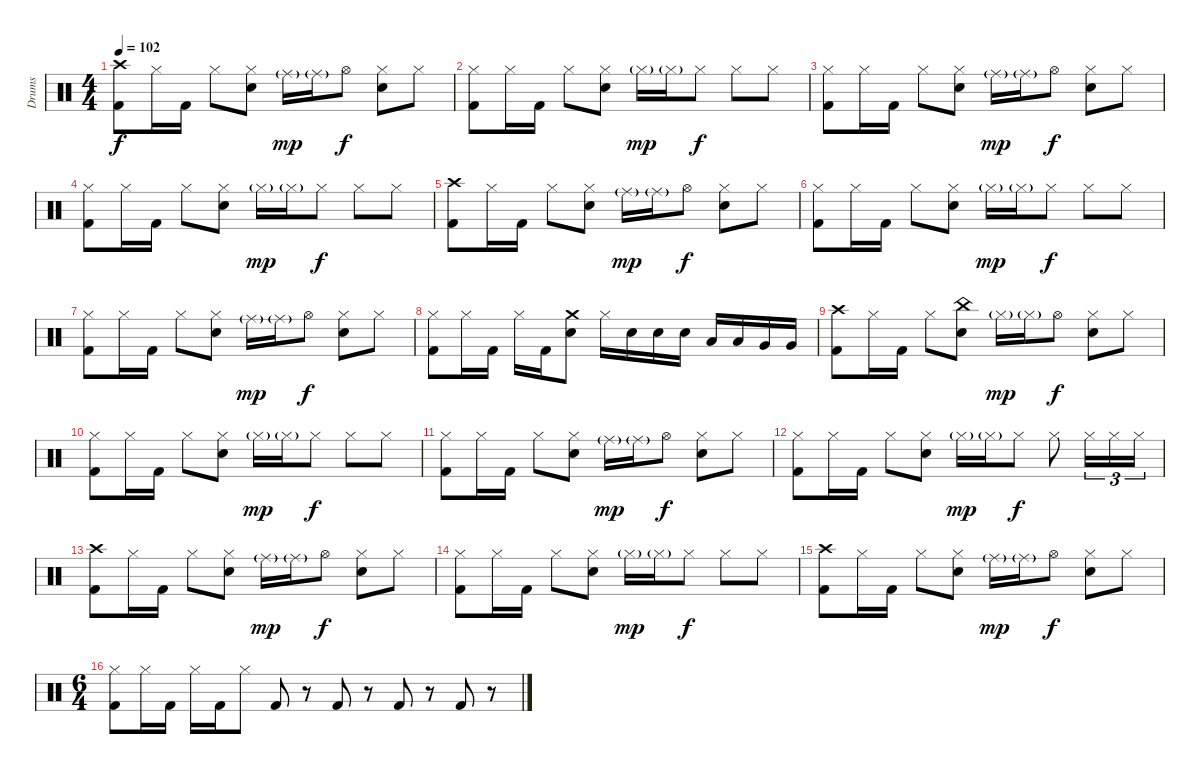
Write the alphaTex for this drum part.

\track ("Drums" "Drums") {instrument percussion}
\staff {score}
\articulation defaults
\ts (4 4)
\section ("" "")
\tempo 102
\clef neutral
\ks c
("Crash high (hit)" "Kick (hit) 2").8{dy f} "Hi-Hat (closed)".16 "Kick (hit) 2".16 "Hi-Hat (closed)".8 ("Hi-Hat (closed)" "Electric Snare (hit)").8 "Ride (middle)"{g}.16{dy mp} "Ride (middle)"{g}.16 "Hi-Hat (open)".8{dy f} ("Hi-Hat (closed)" "Electric Snare (hit)").8 "Hi-Hat (closed)".8 |
("Hi-Hat (closed)" "Kick (hit) 2").8 "Hi-Hat (closed)".16 "Kick (hit) 2".16 "Hi-Hat (closed)".8 ("Hi-Hat (closed)" "Electric Snare (hit)").8 "Hi-Hat (closed)"{g}.16{dy mp} "Hi-Hat (closed)"{g}.16 "Hi-Hat (closed)".8{dy f} "Hi-Hat (closed)".8 "Hi-Hat (closed)".8 |
("Hi-Hat (closed)" "Kick (hit) 2").8 "Hi-Hat (closed)".16 "Kick (hit) 2".16 "Hi-Hat (closed)".8 ("Hi-Hat (closed)" "Electric Snare (hit)").8 "Ride (middle)"{g}.16{dy mp} "Ride (middle)"{g}.16 "Hi-Hat (open)".8{dy f} ("Hi-Hat (closed)" "Electric Snare (hit)").8 "Hi-Hat (closed)".8 |
("Hi-Hat (closed)" "Kick (hit) 2").8 "Hi-Hat (closed)".16 "Kick (hit) 2".16 "Hi-Hat (closed)".8 ("Hi-Hat (closed)" "Electric Snare (hit)").8 "Hi-Hat (closed)"{g}.16{dy mp} "Hi-Hat (closed)"{g}.16 "Hi-Hat (closed)".8{dy f} "Hi-Hat (closed)".8 "Hi-Hat (closed)".8 |
("Crash high (hit)" "Kick (hit) 2").8 "Hi-Hat (closed)".16 "Kick (hit) 2".16 "Hi-Hat (closed)".8 ("Hi-Hat (closed)" "Electric Snare (hit)").8 "Ride (middle)"{g}.16{dy mp} "Ride (middle)"{g}.16 "Hi-Hat (open)".8{dy f} ("Hi-Hat (closed)" "Electric Snare (hit)").8 "Hi-Hat (closed)".8 |
("Hi-Hat (closed)" "Kick (hit) 2").8 "Hi-Hat (closed)".16 "Kick (hit) 2".16 "Hi-Hat (closed)".8 ("Hi-Hat (closed)" "Electric Snare (hit)").8 "Hi-Hat (closed)"{g}.16{dy mp} "Hi-Hat (closed)"{g}.16 "Hi-Hat (closed)".8{dy f} "Hi-Hat (closed)".8 "Hi-Hat (closed)".8 |
("Hi-Hat (closed)" "Kick (hit) 2").8 "Hi-Hat (closed)".16 "Kick (hit) 2".16 "Hi-Hat (closed)".8 ("Hi-Hat (closed)" "Electric Snare (hit)").8 "Ride (middle)"{g}.16{dy mp} "Ride (middle)"{g}.16 "Hi-Hat (open)".8{dy f} ("Hi-Hat (closed)" "Electric Snare (hit)").8 "Hi-Hat (closed)".8 |
("Hi-Hat (closed)" "Kick (hit) 2").8 "Hi-Hat (closed)".16 "Kick (hit) 2".16 "Hi-Hat (closed)".16 "Kick (hit) 2".16 ("Crash medium (hit)" "Electric Snare (hit)").8 "Hi-Hat (closed)".16 "Electric Snare (hit)".16 "Electric Snare (hit)".16 "Electric Snare (hit)".16 "Low Tom (hit)".16 "Low Tom (hit)".16 "Very Low Tom (hit)".16 "Very Low Tom (hit)".16 |
("Crash high (hit)" "Kick (hit) 2").8 "Hi-Hat (closed)".16 "Kick (hit) 2".16 "Hi-Hat (closed)".8 ("China (hit)" "Electric Snare (hit)").8 "Hi-Hat (closed)"{g}.16{dy mp} "Hi-Hat (closed)"{g}.16 "Hi-Hat (open)".8{dy f} ("Hi-Hat (closed)" "Electric Snare (hit)").8 "Hi-Hat (closed)".8 |
("Hi-Hat (closed)" "Kick (hit) 2").8 "Hi-Hat (closed)".16 "Kick (hit) 2".16 "Hi-Hat (closed)".8 ("Hi-Hat (closed)" "Electric Snare (hit)").8 "Hi-Hat (closed)"{g}.16{dy mp} "Hi-Hat (closed)"{g}.16 "Hi-Hat (closed)".8{dy f} "Hi-Hat (closed)".8 "Hi-Hat (closed)".8 |
("Hi-Hat (closed)" "Kick (hit) 2").8 "Hi-Hat (closed)".16 "Kick (hit) 2".16 "Hi-Hat (closed)".8 ("Hi-Hat (closed)" "Electric Snare (hit)").8 "Ride (middle)"{g}.16{dy mp} "Ride (middle)"{g}.16 "Hi-Hat (open)".8{dy f} ("Hi-Hat (closed)" "Electric Snare (hit)").8 "Hi-Hat (closed)".8 |
("Hi-Hat (closed)" "Kick (hit) 2").8 "Hi-Hat (closed)".16 "Kick (hit) 2".16 "Hi-Hat (closed)".8 ("Hi-Hat (closed)" "Electric Snare (hit)").8 "Hi-Hat (closed)"{g}.16{dy mp} "Hi-Hat (closed)"{g}.16 "Hi-Hat (closed)".8{dy f} "Hi-Hat (closed)".8 "Hi-Hat (closed)".16{tu (3 2)} "Hi-Hat (closed)".16{tu (3 2)} "Hi-Hat (closed)".16{tu (3 2)} |
("Crash high (hit)" "Kick (hit) 2").8 "Hi-Hat (closed)".16 "Kick (hit) 2".16 "Hi-Hat (closed)".8 ("Hi-Hat (closed)" "Electric Snare (hit)").8 "Ride (middle)"{g}.16{dy mp} "Ride (middle)"{g}.16 "Hi-Hat (open)".8{dy f} ("Hi-Hat (closed)" "Electric Snare (hit)").8 "Hi-Hat (closed)".8 |
("Hi-Hat (closed)" "Kick (hit) 2").8 "Hi-Hat (closed)".16 "Kick (hit) 2".16 "Hi-Hat (closed)".8 ("Hi-Hat (closed)" "Electric Snare (hit)").8 "Hi-Hat (closed)"{g}.16{dy mp} "Hi-Hat (closed)"{g}.16 "Hi-Hat (closed)".8{dy f} "Hi-Hat (closed)".8 "Hi-Hat (closed)".8 |
("Crash high (hit)" "Kick (hit) 2").8 "Hi-Hat (closed)".16 "Kick (hit) 2".16 "Hi-Hat (closed)".8 ("Hi-Hat (closed)" "Electric Snare (hit)").8 "Ride (middle)"{g}.16{dy mp} "Ride (middle)"{g}.16 "Hi-Hat (open)".8{dy f} ("Hi-Hat (closed)" "Electric Snare (hit)").8 "Hi-Hat (closed)".8 |
\ts (6 4)
("Hi-Hat (closed)" "Kick (hit) 2").8 "Hi-Hat (closed)".16 "Kick (hit) 2".16 "Hi-Hat (closed)".16 "Kick (hit) 2".16 "Hi-Hat (closed)".8 "Kick (hit) 2".8 r.8 "Kick (hit) 2".8{volume 13} r.8 "Kick (hit) 2".8{volume 10} r.8 "Kick (hit) 2".8{volume 8} r.8
